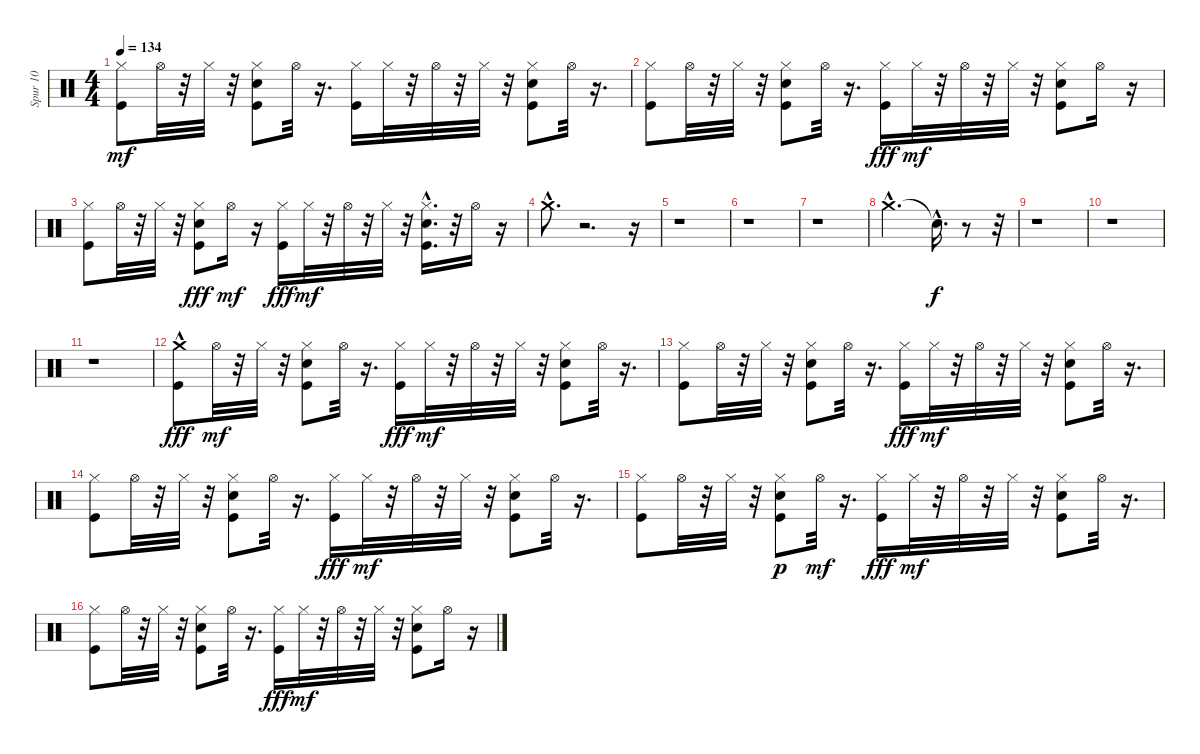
\track ("Spur 10" "Spur 10") {instrument percussion}
\staff {score}
\articulation defaults
\ts (4 4)
\tempo 134
\clef neutral
\ks c
("Kick (hit)" "Hi-Hat (closed)").8{dy mf} "Hi-Hat (open)".32 r.32 "Hi-Hat (closed)".32 r.32 ("Snare (hit) 2" "Kick (hit)" "Hi-Hat (closed)").8 "Hi-Hat (open)".32 r.16{d} ("Kick (hit)" "Hi-Hat (closed)").16 "Hi-Hat (closed)".32 r.32 "Hi-Hat (open)".32 r.32 "Hi-Hat (closed)".32 r.32 ("Snare (hit) 2" "Kick (hit)" "Hi-Hat (closed)").8 "Hi-Hat (open)".32 r.16{d} |
("Kick (hit)" "Hi-Hat (closed)").8 "Hi-Hat (open)".32 r.32 "Hi-Hat (closed)".32 r.32 ("Snare (hit) 2" "Kick (hit)" "Hi-Hat (closed)").8 "Hi-Hat (open)".32 r.16{d} ("Hi-Hat (closed)" "Kick (hit)").16{dy fff} "Hi-Hat (closed)".32{dy mf} r.32 "Hi-Hat (open)".32 r.32 "Hi-Hat (closed)".32 r.32 ("Snare (hit) 2" "Kick (hit)" "Hi-Hat (closed)").8 "Hi-Hat (open)".16 r.16 |
("Kick (hit)" "Hi-Hat (closed)").8 "Hi-Hat (open)".32 r.32 "Hi-Hat (closed)".32 r.32 ("Hi-Hat (closed)" "Snare (hit) 2" "Kick (hit)").8{dy fff} "Hi-Hat (open)".16{dy mf} r.16 ("Hi-Hat (closed)" "Kick (hit)").16{dy fff} "Hi-Hat (closed)".32{dy mf} r.32 "Hi-Hat (open)".32 r.32 "Hi-Hat (closed)".32 r.32 ("Snare (hit) 2" "Kick (hit)"{hac} "Hi-Hat (closed)").16{d} r.32 "Hi-Hat (open)".16 r.16 |
"Crash medium (hit)"{hac}.8{d} r.2{d} r.16 |
r.1 |
r.1 |
r.1 |
"Crash medium (hit)"{hac}.2{d} "Snare (hit)"{hac t}.16{d dy f} r.8 r.32 |
r.1 |
r.1 |
r.1 |
("Crash medium (hit)"{hac} "Kick (hit)").8{dy fff} "Hi-Hat (open)".32{dy mf} r.32 "Hi-Hat (closed)".32 r.32 ("Snare (hit) 2" "Kick (hit)" "Hi-Hat (closed)").8 "Hi-Hat (open)".32 r.16{d} ("Hi-Hat (closed)" "Kick (hit)").16{dy fff} "Hi-Hat (closed)".32{dy mf} r.32 "Hi-Hat (open)".32 r.32 "Hi-Hat (closed)".32 r.32 ("Snare (hit) 2" "Kick (hit)" "Hi-Hat (closed)").8 "Hi-Hat (open)".32 r.16{d} |
("Kick (hit)" "Hi-Hat (closed)").8 "Hi-Hat (open)".32 r.32 "Hi-Hat (closed)".32 r.32 ("Snare (hit) 2" "Kick (hit)" "Hi-Hat (closed)").8 "Hi-Hat (open)".32 r.16{d} ("Hi-Hat (closed)" "Kick (hit)").16{dy fff} "Hi-Hat (closed)".32{dy mf} r.32 "Hi-Hat (open)".32 r.32 "Hi-Hat (closed)".32 r.32 ("Kick (hit)" "Snare (hit) 2" "Hi-Hat (closed)").8 "Hi-Hat (open)".32 r.16{d} |
("Kick (hit)" "Hi-Hat (closed)").8 "Hi-Hat (open)".32 r.32 "Hi-Hat (closed)".32 r.32 ("Kick (hit)" "Snare (hit) 2" "Hi-Hat (closed)").8 "Hi-Hat (open)".32 r.16{d} ("Hi-Hat (closed)" "Kick (hit)").16{dy fff} "Hi-Hat (closed)".32{dy mf} r.32 "Hi-Hat (open)".32 r.32 "Hi-Hat (closed)".32 r.32 ("Snare (hit) 2" "Kick (hit)" "Hi-Hat (closed)").8 "Hi-Hat (open)".32 r.16{d} |
("Kick (hit)" "Hi-Hat (closed)").8 "Hi-Hat (open)".32 r.32 "Hi-Hat (closed)".32 r.32 ("Hi-Hat (closed)" "Kick (hit)" "Snare (hit) 2").8{dy p} "Hi-Hat (open)".32{dy mf} r.16{d} ("Hi-Hat (closed)" "Kick (hit)").16{dy fff} "Hi-Hat (closed)".32{dy mf} r.32 "Hi-Hat (open)".32 r.32 "Hi-Hat (closed)".32 r.32 ("Kick (hit)" "Snare (hit) 2" "Hi-Hat (closed)").8 "Hi-Hat (open)".32 r.16{d} |
("Kick (hit)" "Hi-Hat (closed)").8 "Hi-Hat (open)".32 r.32 "Hi-Hat (closed)".32 r.32 ("Snare (hit) 2" "Kick (hit)" "Hi-Hat (closed)").8 "Hi-Hat (open)".32 r.16{d} ("Hi-Hat (closed)" "Kick (hit)").16{dy fff} "Hi-Hat (closed)".32{dy mf} r.32 "Hi-Hat (open)".32 r.32 "Hi-Hat (closed)".32 r.32 ("Snare (hit) 2" "Kick (hit)" "Hi-Hat (closed)").8 "Hi-Hat (open)".16 r.16
